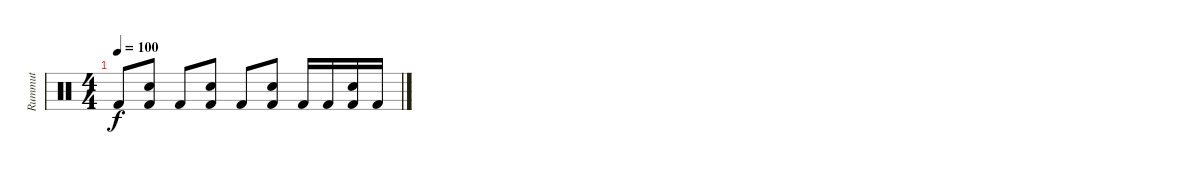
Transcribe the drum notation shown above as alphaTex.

\track ("Rummut" "Rummut") {instrument percussion}
\staff {score}
\articulation defaults
\ts (4 4)
\tempo 100
\clef neutral
\ks c "Kick (hit) 2".8{dy f}
("Snare (hit) 2" "Kick (hit) 2").8 "Kick (hit) 2".8 ("Snare (hit) 2" "Kick (hit) 2").8 "Kick (hit) 2".8 ("Snare (hit) 2" "Kick (hit) 2").8 "Kick (hit) 2".16 "Kick (hit) 2".16 ("Snare (hit) 2" "Kick (hit) 2").16 "Kick (hit) 2".16
